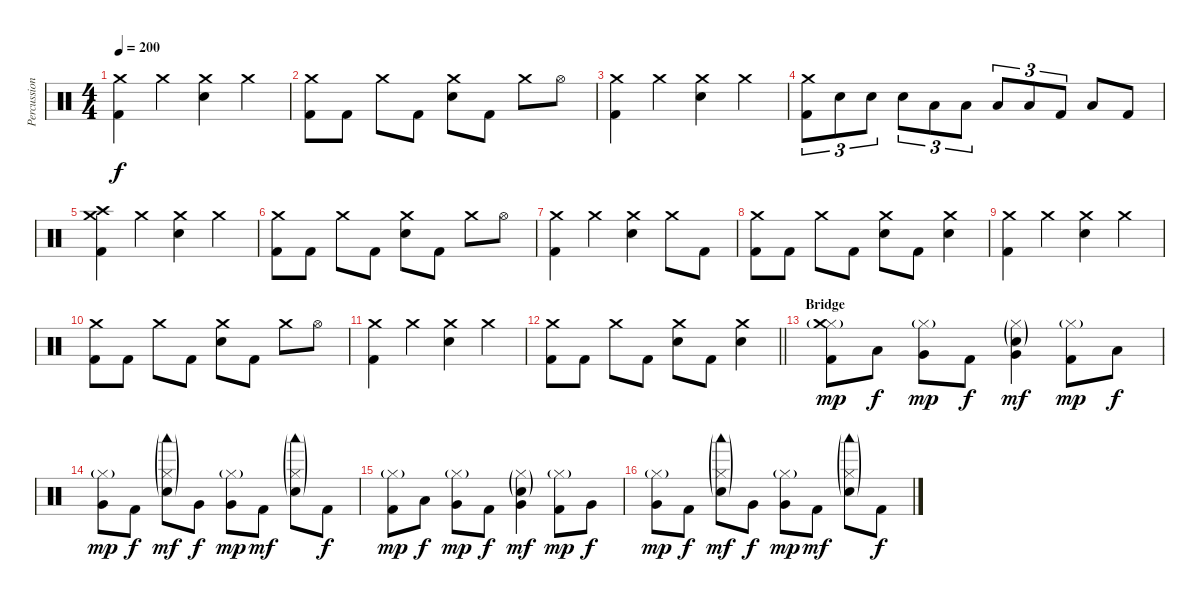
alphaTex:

\track ("Percussion" "Percussion") {instrument percussion}
\staff {score}
\articulation defaults
\ts (4 4)
\tempo 200
\clef neutral
\ks c
("Crash medium (hit)" "Kick (hit) 2").4{dy f} "Crash medium (hit)".4 ("Crash medium (hit)" "Electric Snare (hit)").4 "Crash medium (hit)".4 |
("Crash medium (hit)" "Kick (hit) 2").8 "Kick (hit) 2".8 "Crash medium (hit)".8 "Kick (hit) 2".8 ("Crash medium (hit)" "Electric Snare (hit)").8 "Kick (hit) 2".8 "Crash medium (hit)".8 "Hi-Hat (open)".8 |
("Crash medium (hit)" "Kick (hit) 2").4 "Crash medium (hit)".4 ("Crash medium (hit)" "Electric Snare (hit)").4 "Crash medium (hit)".4 |
("Crash medium (hit)" "Kick (hit) 2").8{tu (3 2)} "Electric Snare (hit)".8{tu (3 2)} "Electric Snare (hit)".8{tu (3 2)} "Electric Snare (hit)".8{tu (3 2)} "Low Tom (hit)".8{tu (3 2)} "Low Tom (hit)".8{tu (3 2)} "Low Tom (hit)".8{tu (3 2)} "Low Tom (hit)".8{tu (3 2)} "Kick (hit) 2".8{tu (3 2)} "Low Tom (hit)".8 "Kick (hit) 2".8 |
("Crash medium (hit)" "Crash high (hit)" "Kick (hit) 2").4 "Crash medium (hit)".4 ("Crash medium (hit)" "Electric Snare (hit)").4 "Crash medium (hit)".4 |
("Crash medium (hit)" "Kick (hit) 2").8 "Kick (hit) 2".8 "Crash medium (hit)".8 "Kick (hit) 2".8 ("Crash medium (hit)" "Electric Snare (hit)").8 "Kick (hit) 2".8 "Crash medium (hit)".8 "Hi-Hat (open)".8 |
("Crash medium (hit)" "Kick (hit) 2").4 "Crash medium (hit)".4 ("Crash medium (hit)" "Electric Snare (hit)").4 "Crash medium (hit)".8 "Kick (hit) 2".8 |
("Crash medium (hit)" "Kick (hit) 2").8 "Kick (hit) 2".8 "Crash medium (hit)".8 "Kick (hit) 2".8 ("Crash medium (hit)" "Electric Snare (hit)").8 "Kick (hit) 2".8 ("Crash medium (hit)" "Electric Snare (hit)").4 |
("Crash medium (hit)" "Kick (hit) 2").4 "Crash medium (hit)".4 ("Crash medium (hit)" "Electric Snare (hit)").4 "Crash medium (hit)".4 |
("Crash medium (hit)" "Kick (hit) 2").8 "Kick (hit) 2".8 "Crash medium (hit)".8 "Kick (hit) 2".8 ("Crash medium (hit)" "Electric Snare (hit)").8 "Kick (hit) 2".8 "Crash medium (hit)".8 "Hi-Hat (open)".8 |
("Crash medium (hit)" "Kick (hit) 2").4 "Crash medium (hit)".4 ("Crash medium (hit)" "Electric Snare (hit)").4 "Crash medium (hit)".4 |
\barLineRight lightlight
("Crash medium (hit)" "Kick (hit) 2").8 "Kick (hit) 2".8 "Crash medium (hit)".8 "Kick (hit) 2".8 ("Crash medium (hit)" "Electric Snare (hit)").8 "Kick (hit) 2".8 ("Crash medium (hit)" "Electric Snare (hit)").4 |
\section ("" "Bridge")
("Hi-Hat (closed)"{g} "Crash medium (hit)" "Kick (hit) 2").8{dy mp} "Low Tom (hit)".8{dy f} ("Hi-Hat (closed)"{g} "Very Low Tom (hit)").8{dy mp} "Kick (hit) 2".8{dy f} ("Hi-Hat (closed)"{g} "Very Low Tom (hit)" "Snare (hit) 2"{g}).4{dy mf} ("Hi-Hat (closed)"{g} "Kick (hit) 2").8{dy mp} "Low Tom (hit)".8{dy f} |
("Hi-Hat (closed)"{g} "Very Low Tom (hit)").8{dy mp} "Kick (hit) 2".8{dy f} ("Hi-Hat (closed)"{g} "Snare (hit) 2"{g} "Woodblock low (hit)"{g}).8{dy mf} "Very Low Tom (hit)".8{dy f} ("Hi-Hat (closed)"{g} "Very Low Tom (hit)").8{dy mp} "Kick (hit) 2".8{dy mf} ("Hi-Hat (closed)"{g} "Snare (hit) 2"{g} "Woodblock low (hit)"{g}).8 "Kick (hit) 2".8{dy f} |
("Hi-Hat (closed)"{g} "Kick (hit) 2").8{dy mp} "Low Tom (hit)".8{dy f} ("Hi-Hat (closed)"{g} "Very Low Tom (hit)").8{dy mp} "Kick (hit) 2".8{dy f} ("Hi-Hat (closed)"{g} "Very Low Tom (hit)" "Snare (hit) 2"{g}).4{dy mf} ("Hi-Hat (closed)"{g} "Kick (hit) 2").8{dy mp} "Very Low Tom (hit)".8{dy f} |
("Hi-Hat (closed)"{g} "Very Low Tom (hit)").8{dy mp} "Kick (hit) 2".8{dy f} ("Hi-Hat (closed)"{g} "Snare (hit) 2"{g} "Woodblock low (hit)"{g}).8{dy mf} "Very Low Tom (hit)".8{dy f} ("Hi-Hat (closed)"{g} "Very Low Tom (hit)").8{dy mp} "Kick (hit) 2".8{dy mf} ("Hi-Hat (closed)"{g} "Snare (hit) 2"{g} "Woodblock low (hit)"{g}).8 "Kick (hit) 2".8{dy f}
